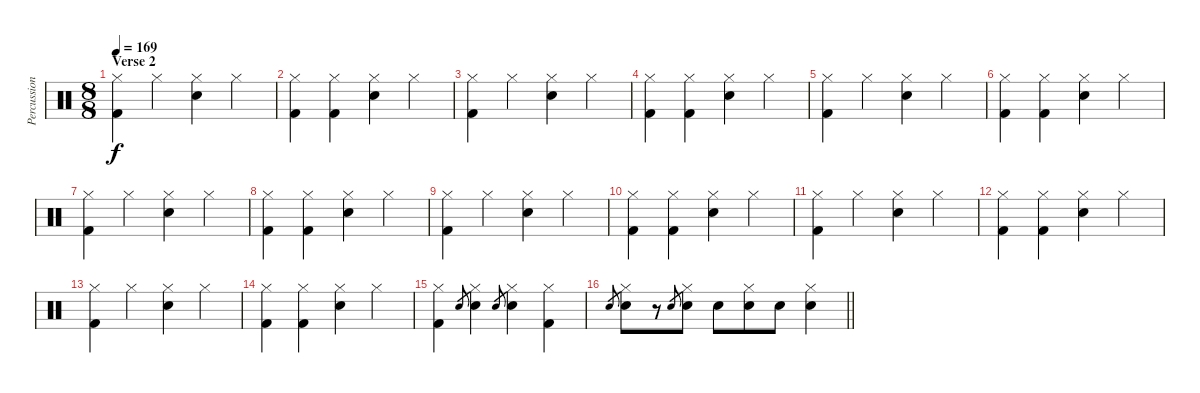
\track ("Percussion" "Percussion") {instrument percussion}
\staff {score}
\articulation defaults
\ts (8 8)
\section ("" "Verse 2")
\tempo 169
\clef neutral
\ks c
("Hi-Hat (closed)" "Kick (hit) 2").4{dy f} "Hi-Hat (closed)".4 ("Hi-Hat (closed)" "Snare (hit) 2").4 "Hi-Hat (closed)".4 |
("Hi-Hat (closed)" "Kick (hit) 2").4 ("Hi-Hat (closed)" "Kick (hit) 2").4 ("Hi-Hat (closed)" "Snare (hit) 2").4 "Hi-Hat (closed)".4 |
("Hi-Hat (closed)" "Kick (hit) 2").4 "Hi-Hat (closed)".4 ("Hi-Hat (closed)" "Snare (hit) 2").4 "Hi-Hat (closed)".4 |
("Hi-Hat (closed)" "Kick (hit) 2").4 ("Hi-Hat (closed)" "Kick (hit) 2").4 ("Hi-Hat (closed)" "Snare (hit) 2").4 "Hi-Hat (closed)".4 |
("Hi-Hat (closed)" "Kick (hit) 2").4 "Hi-Hat (closed)".4 ("Hi-Hat (closed)" "Snare (hit) 2").4 "Hi-Hat (closed)".4 |
("Hi-Hat (closed)" "Kick (hit) 2").4 ("Hi-Hat (closed)" "Kick (hit) 2").4 ("Hi-Hat (closed)" "Snare (hit) 2").4 "Hi-Hat (closed)".4 |
("Hi-Hat (closed)" "Kick (hit) 2").4 "Hi-Hat (closed)".4 ("Hi-Hat (closed)" "Snare (hit) 2").4 "Hi-Hat (closed)".4 |
("Hi-Hat (closed)" "Kick (hit) 2").4 ("Hi-Hat (closed)" "Kick (hit) 2").4 ("Hi-Hat (closed)" "Snare (hit) 2").4 "Hi-Hat (closed)".4 |
("Hi-Hat (closed)" "Kick (hit) 2").4 "Hi-Hat (closed)".4 ("Hi-Hat (closed)" "Snare (hit) 2").4 "Hi-Hat (closed)".4 |
("Hi-Hat (closed)" "Kick (hit) 2").4 ("Hi-Hat (closed)" "Kick (hit) 2").4 ("Hi-Hat (closed)" "Snare (hit) 2").4 "Hi-Hat (closed)".4 |
("Hi-Hat (closed)" "Kick (hit) 2").4 "Hi-Hat (closed)".4 ("Hi-Hat (closed)" "Snare (hit) 2").4 "Hi-Hat (closed)".4 |
("Hi-Hat (closed)" "Kick (hit) 2").4 ("Hi-Hat (closed)" "Kick (hit) 2").4 ("Hi-Hat (closed)" "Snare (hit) 2").4 "Hi-Hat (closed)".4 |
("Hi-Hat (closed)" "Kick (hit) 2").4 "Hi-Hat (closed)".4 ("Hi-Hat (closed)" "Snare (hit) 2").4 "Hi-Hat (closed)".4 |
("Hi-Hat (closed)" "Kick (hit) 2").4 ("Hi-Hat (closed)" "Kick (hit) 2").4 ("Hi-Hat (closed)" "Snare (hit) 2").4 "Hi-Hat (closed)".4 |
("Hi-Hat (closed)" "Kick (hit) 2").4 "Snare (hit) 2".8{gr} ("Hi-Hat (closed)" "Snare (hit) 2").4 "Snare (hit) 2".8{gr} ("Hi-Hat (closed)" "Snare (hit) 2").4 ("Hi-Hat (closed)" "Kick (hit) 2").4 |
\barLineRight lightlight "Snare (hit) 2".8{gr}
("Hi-Hat (closed)" "Snare (hit) 2").8 r.8 "Snare (hit) 2".8{gr} ("Hi-Hat (closed)" "Snare (hit) 2").8 "Snare (hit) 2".8 ("Hi-Hat (closed)" "Snare (hit) 2").8 "Snare (hit) 2".8 ("Hi-Hat (closed)" "Snare (hit) 2").4
